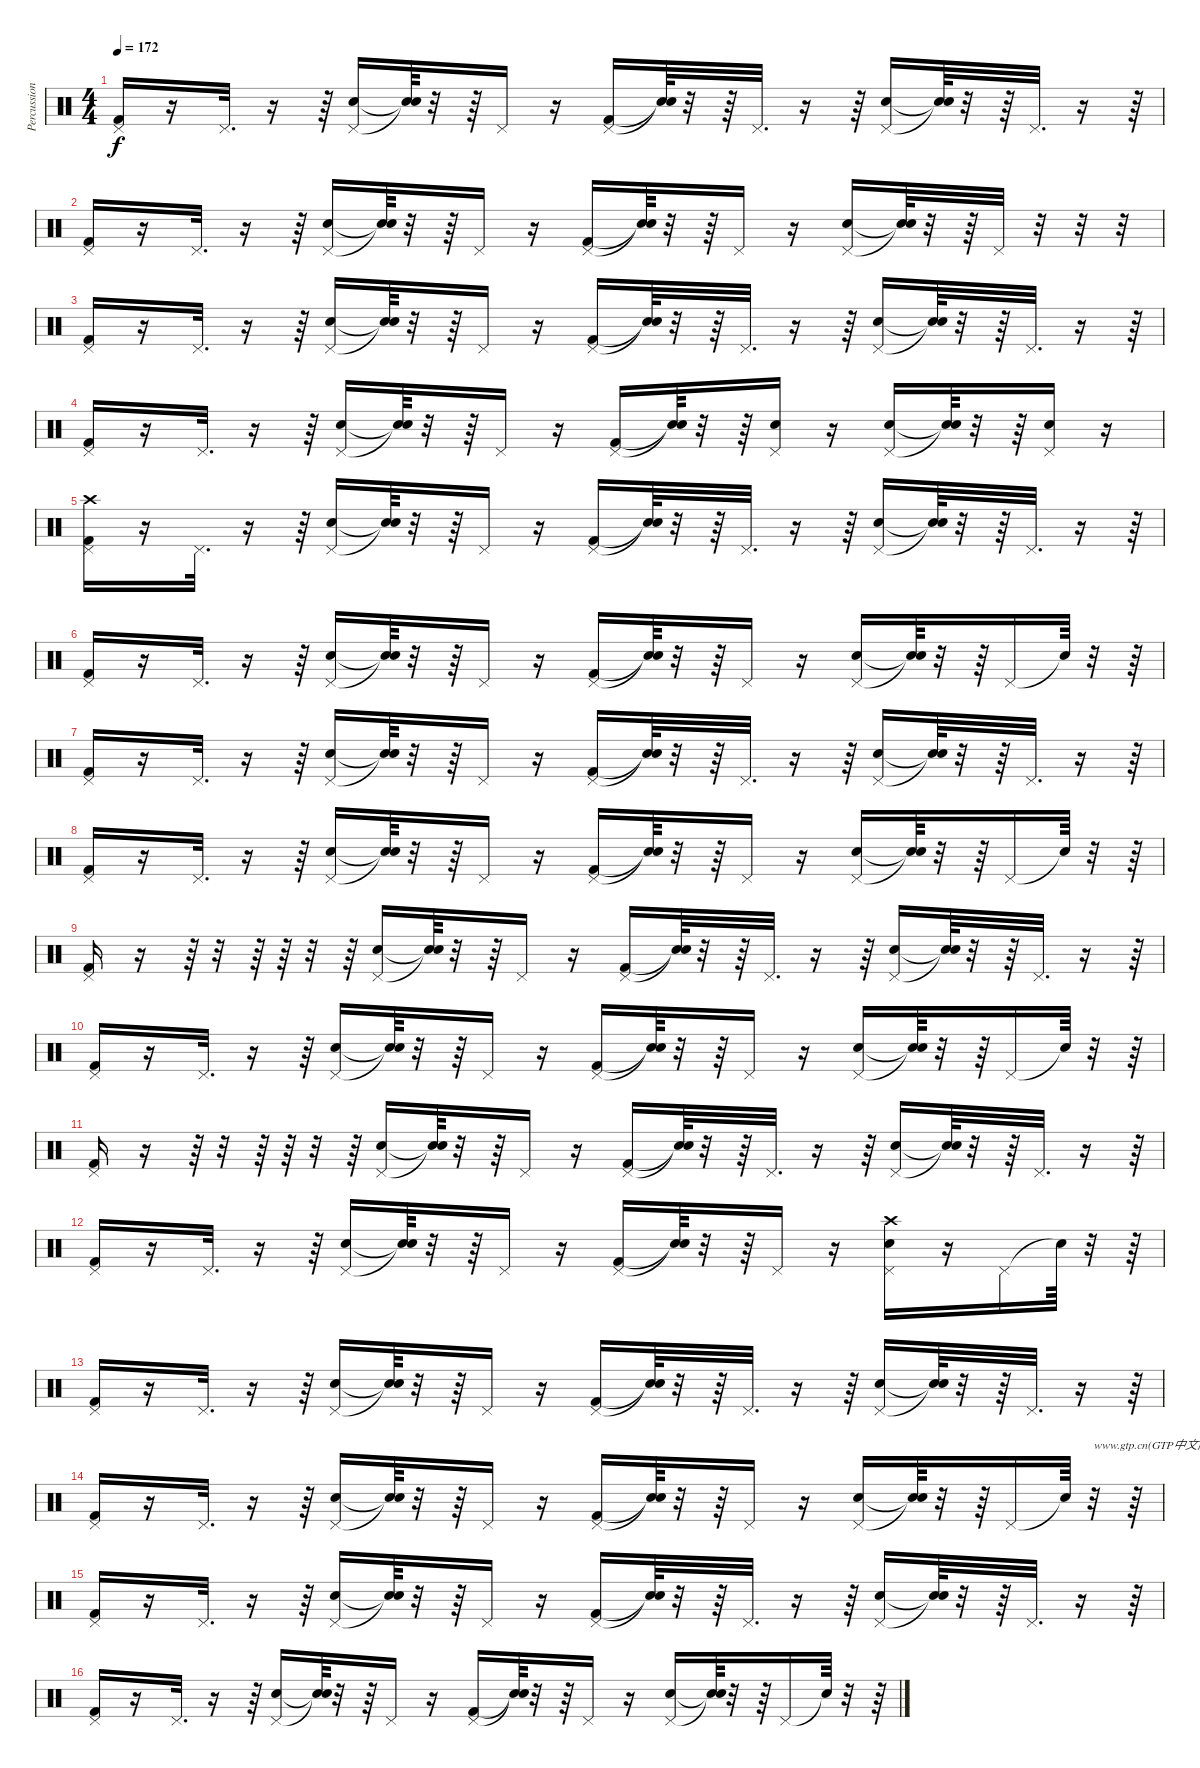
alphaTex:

\track ("Percussions" "Percussion") {instrument percussion}
\staff {score}
\articulation defaults
\ts (4 4)
\tempo 172
\clef neutral
\ks c
("Pedal Hi-Hat (hit)" "Kick (hit) 2").16{dy f} r.16 "Pedal Hi-Hat (hit)".32{d} r.16 r.64 ("Pedal Hi-Hat (hit)" "Snare (hit) 2").16 ("Snare (hit)"{t} "Snare (hit)"{t}).64 r.32 r.64 "Pedal Hi-Hat (hit)".16 r.16 ("Pedal Hi-Hat (hit)" "Kick (hit) 2").16 ("Snare (hit)"{t} "Snare (hit)"{t}).64 r.32 r.64 "Pedal Hi-Hat (hit)".32{d} r.16 r.64 ("Pedal Hi-Hat (hit)" "Snare (hit) 2").16 ("Snare (hit)"{t} "Snare (hit)"{t}).64 r.32 r.64 "Pedal Hi-Hat (hit)".32{d} r.16 r.64 |
("Pedal Hi-Hat (hit)" "Kick (hit) 2").16 r.16 "Pedal Hi-Hat (hit)".32{d} r.16 r.64 ("Pedal Hi-Hat (hit)" "Snare (hit) 2").16 ("Snare (hit)"{t} "Snare (hit)"{t}).64 r.32 r.64 "Pedal Hi-Hat (hit)".16 r.16 ("Pedal Hi-Hat (hit)" "Kick (hit) 2").16 ("Snare (hit)"{t} "Snare (hit)"{t}).64 r.32 r.64 "Pedal Hi-Hat (hit)".16 r.16 ("Pedal Hi-Hat (hit)" "Snare (hit) 2").16 ("Snare (hit)"{t} "Snare (hit)"{t}).64 r.32 r.64 "Pedal Hi-Hat (hit)".32 r.32 r.32 r.32 |
("Pedal Hi-Hat (hit)" "Kick (hit) 2").16 r.16 "Pedal Hi-Hat (hit)".32{d} r.16 r.64 ("Pedal Hi-Hat (hit)" "Snare (hit) 2").16 ("Snare (hit)"{t} "Snare (hit)"{t}).64 r.32 r.64 "Pedal Hi-Hat (hit)".16 r.16 ("Pedal Hi-Hat (hit)" "Kick (hit) 2").16 ("Snare (hit)"{t} "Snare (hit)"{t}).64 r.32 r.64 "Pedal Hi-Hat (hit)".32{d} r.16 r.64 ("Pedal Hi-Hat (hit)" "Snare (hit) 2").16 ("Snare (hit)"{t} "Snare (hit)"{t}).64 r.32 r.64 "Pedal Hi-Hat (hit)".32{d} r.16 r.64 |
("Pedal Hi-Hat (hit)" "Kick (hit) 2").16 r.16 "Pedal Hi-Hat (hit)".32{d} r.16 r.64 ("Pedal Hi-Hat (hit)" "Snare (hit) 2").16 ("Snare (hit)"{t} "Snare (hit)"{t}).64 r.32 r.64 "Pedal Hi-Hat (hit)".16 r.16 ("Pedal Hi-Hat (hit)" "Kick (hit) 2").16 ("Snare (hit)"{t} "Snare (hit)"{t}).64 r.32 r.64 ("Pedal Hi-Hat (hit)" "Snare (hit) 2").16 r.16 ("Pedal Hi-Hat (hit)" "Snare (hit) 2").16 ("Snare (hit)"{t} "Snare (hit)"{t}).64 r.32 r.64 ("Snare (hit) 2" "Pedal Hi-Hat (hit)").16 r.16 |
("Pedal Hi-Hat (hit)" "Crash high (hit)" "Kick (hit) 2").16 r.16 "Pedal Hi-Hat (hit)".32{d} r.16 r.64 ("Pedal Hi-Hat (hit)" "Snare (hit) 2").16 ("Snare (hit)"{t} "Snare (hit)"{t}).64 r.32 r.64 "Pedal Hi-Hat (hit)".16 r.16 ("Pedal Hi-Hat (hit)" "Kick (hit) 2").16 ("Snare (hit)"{t} "Snare (hit)"{t}).64 r.32 r.64 "Pedal Hi-Hat (hit)".32{d} r.16 r.64 ("Pedal Hi-Hat (hit)" "Snare (hit) 2").16 ("Snare (hit)"{t} "Snare (hit)"{t}).64 r.32 r.64 "Pedal Hi-Hat (hit)".32{d} r.16 r.64 |
("Pedal Hi-Hat (hit)" "Kick (hit) 2").16 r.16 "Pedal Hi-Hat (hit)".32{d} r.16 r.64 ("Pedal Hi-Hat (hit)" "Snare (hit) 2").16 ("Snare (hit)"{t} "Snare (hit)"{t}).64 r.32 r.64 "Pedal Hi-Hat (hit)".16 r.16 ("Pedal Hi-Hat (hit)" "Kick (hit) 2").16 ("Snare (hit)"{t} "Snare (hit)"{t}).64 r.32 r.64 "Pedal Hi-Hat (hit)".16 r.16 ("Pedal Hi-Hat (hit)" "Snare (hit) 2").16 ("Snare (hit)"{t} "Snare (hit)"{t}).64 r.32 r.64 "Pedal Hi-Hat (hit)".16 "Snare (hit)"{t}.64 r.32 r.64 |
("Pedal Hi-Hat (hit)" "Kick (hit) 2").16 r.16 "Pedal Hi-Hat (hit)".32{d} r.16 r.64 ("Pedal Hi-Hat (hit)" "Snare (hit) 2").16 ("Snare (hit)"{t} "Snare (hit)"{t}).64 r.32 r.64 "Pedal Hi-Hat (hit)".16 r.16 ("Pedal Hi-Hat (hit)" "Kick (hit) 2").16 ("Snare (hit)"{t} "Snare (hit)"{t}).64 r.32 r.64 "Pedal Hi-Hat (hit)".32{d} r.16 r.64 ("Pedal Hi-Hat (hit)" "Snare (hit) 2").16 ("Snare (hit)"{t} "Snare (hit)"{t}).64 r.32 r.64 "Pedal Hi-Hat (hit)".32{d} r.16 r.64 |
("Pedal Hi-Hat (hit)" "Kick (hit) 2").16 r.16 "Pedal Hi-Hat (hit)".32{d} r.16 r.64 ("Pedal Hi-Hat (hit)" "Snare (hit) 2").16 ("Snare (hit)"{t} "Snare (hit)"{t}).64 r.32 r.64 "Pedal Hi-Hat (hit)".16 r.16 ("Pedal Hi-Hat (hit)" "Kick (hit) 2").16 ("Snare (hit)"{t} "Snare (hit)"{t}).64 r.32 r.64 "Pedal Hi-Hat (hit)".16 r.16 ("Pedal Hi-Hat (hit)" "Snare (hit) 2").16 ("Snare (hit)"{t} "Snare (hit)"{t}).64 r.32 r.64 "Pedal Hi-Hat (hit)".16 "Snare (hit)"{t}.64 r.32 r.64 |
("Pedal Hi-Hat (hit)" "Kick (hit) 2").16 r.16 r.64 r.32 r.64 r.64 r.32 r.64 ("Pedal Hi-Hat (hit)" "Snare (hit) 2").16 ("Snare (hit)"{t} "Snare (hit)"{t}).64 r.32 r.64 "Pedal Hi-Hat (hit)".16 r.16 ("Pedal Hi-Hat (hit)" "Kick (hit) 2").16 ("Snare (hit)"{t} "Snare (hit)"{t}).64 r.32 r.64 "Pedal Hi-Hat (hit)".32{d} r.16 r.64 ("Pedal Hi-Hat (hit)" "Snare (hit) 2").16 ("Snare (hit)"{t} "Snare (hit)"{t}).64 r.32 r.64 "Pedal Hi-Hat (hit)".32{d} r.16 r.64 |
("Pedal Hi-Hat (hit)" "Kick (hit) 2").16 r.16 "Pedal Hi-Hat (hit)".32{d} r.16 r.64 ("Pedal Hi-Hat (hit)" "Snare (hit) 2").16 ("Snare (hit)"{t} "Snare (hit)"{t}).64 r.32 r.64 "Pedal Hi-Hat (hit)".16 r.16 ("Pedal Hi-Hat (hit)" "Kick (hit) 2").16 ("Snare (hit)"{t} "Snare (hit)"{t}).64 r.32 r.64 "Pedal Hi-Hat (hit)".16 r.16 ("Pedal Hi-Hat (hit)" "Snare (hit) 2").16 ("Snare (hit)"{t} "Snare (hit)"{t}).64 r.32 r.64 "Pedal Hi-Hat (hit)".16 "Snare (hit)"{t}.64 r.32 r.64 |
("Pedal Hi-Hat (hit)" "Kick (hit) 2").16 r.16 r.64 r.32 r.64 r.64 r.32 r.64 ("Pedal Hi-Hat (hit)" "Snare (hit) 2").16 ("Snare (hit)"{t} "Snare (hit)"{t}).64 r.32 r.64 "Pedal Hi-Hat (hit)".16 r.16 ("Pedal Hi-Hat (hit)" "Kick (hit) 2").16 ("Snare (hit)"{t} "Snare (hit)"{t}).64 r.32 r.64 "Pedal Hi-Hat (hit)".32{d} r.16 r.64 ("Pedal Hi-Hat (hit)" "Snare (hit) 2").16 ("Snare (hit)"{t} "Snare (hit)"{t}).64 r.32 r.64 "Pedal Hi-Hat (hit)".32{d} r.16 r.64 |
("Pedal Hi-Hat (hit)" "Kick (hit) 2").16 r.16 "Pedal Hi-Hat (hit)".32{d} r.16 r.64 ("Pedal Hi-Hat (hit)" "Snare (hit) 2").16 ("Snare (hit)"{t} "Snare (hit)"{t}).64 r.32 r.64 "Pedal Hi-Hat (hit)".16 r.16 ("Pedal Hi-Hat (hit)" "Kick (hit) 2").16 ("Snare (hit)"{t} "Snare (hit)"{t}).64 r.32 r.64 "Pedal Hi-Hat (hit)".16 r.16 ("Crash high (hit)" "Pedal Hi-Hat (hit)" "Snare (hit) 2").16 r.16 "Pedal Hi-Hat (hit)".16 "Snare (hit)"{t}.64 r.32 r.64 |
("Pedal Hi-Hat (hit)" "Kick (hit) 2").16 r.16 "Pedal Hi-Hat (hit)".32{d} r.16 r.64 ("Pedal Hi-Hat (hit)" "Snare (hit) 2").16 ("Snare (hit)"{t} "Snare (hit)"{t}).64 r.32 r.64 "Pedal Hi-Hat (hit)".16 r.16 ("Pedal Hi-Hat (hit)" "Kick (hit) 2").16 ("Snare (hit)"{t} "Snare (hit)"{t}).64 r.32 r.64 "Pedal Hi-Hat (hit)".32{d} r.16 r.64 ("Pedal Hi-Hat (hit)" "Snare (hit) 2").16 ("Snare (hit)"{t} "Snare (hit)"{t}).64 r.32 r.64 "Pedal Hi-Hat (hit)".32{d} r.16 r.64 |
("Pedal Hi-Hat (hit)" "Kick (hit) 2").16 r.16 "Pedal Hi-Hat (hit)".32{d} r.16 r.64 ("Pedal Hi-Hat (hit)" "Snare (hit) 2").16 ("Snare (hit)"{t} "Snare (hit)"{t}).64 r.32 r.64 "Pedal Hi-Hat (hit)".16 r.16 ("Pedal Hi-Hat (hit)" "Kick (hit) 2").16 ("Snare (hit)"{t} "Snare (hit)"{t}).64 r.32 r.64 "Pedal Hi-Hat (hit)".16 r.16 ("Pedal Hi-Hat (hit)" "Snare (hit) 2").16 ("Snare (hit)"{t} "Snare (hit)"{t}).64 r.32 r.64 "Pedal Hi-Hat (hit)".16 "Snare (hit)"{t}.64 r.32{txt "www.gtp.cn(GTP中文网)您提供优秀的GTP"} r.64 |
("Pedal Hi-Hat (hit)" "Kick (hit) 2").16 r.16 "Pedal Hi-Hat (hit)".32{d} r.16 r.64 ("Pedal Hi-Hat (hit)" "Snare (hit) 2").16 ("Snare (hit)"{t} "Snare (hit)"{t}).64 r.32 r.64 "Pedal Hi-Hat (hit)".16 r.16 ("Pedal Hi-Hat (hit)" "Kick (hit) 2").16 ("Snare (hit)"{t} "Snare (hit)"{t}).64 r.32 r.64 "Pedal Hi-Hat (hit)".32{d} r.16 r.64 ("Pedal Hi-Hat (hit)" "Snare (hit) 2").16 ("Snare (hit)"{t} "Snare (hit)"{t}).64 r.32 r.64 "Pedal Hi-Hat (hit)".32{d} r.16 r.64 |
("Pedal Hi-Hat (hit)" "Kick (hit) 2").16 r.16 "Pedal Hi-Hat (hit)".32{d} r.16 r.64 ("Pedal Hi-Hat (hit)" "Snare (hit) 2").16 ("Snare (hit)"{t} "Snare (hit)"{t}).64 r.32 r.64 "Pedal Hi-Hat (hit)".16 r.16 ("Pedal Hi-Hat (hit)" "Kick (hit) 2").16 ("Snare (hit)"{t} "Snare (hit)"{t}).64 r.32 r.64 "Pedal Hi-Hat (hit)".16 r.16 ("Pedal Hi-Hat (hit)" "Snare (hit) 2").16 ("Snare (hit)"{t} "Snare (hit)"{t}).64 r.32 r.64 "Pedal Hi-Hat (hit)".16 "Snare (hit)"{t}.64 r.32 r.64
